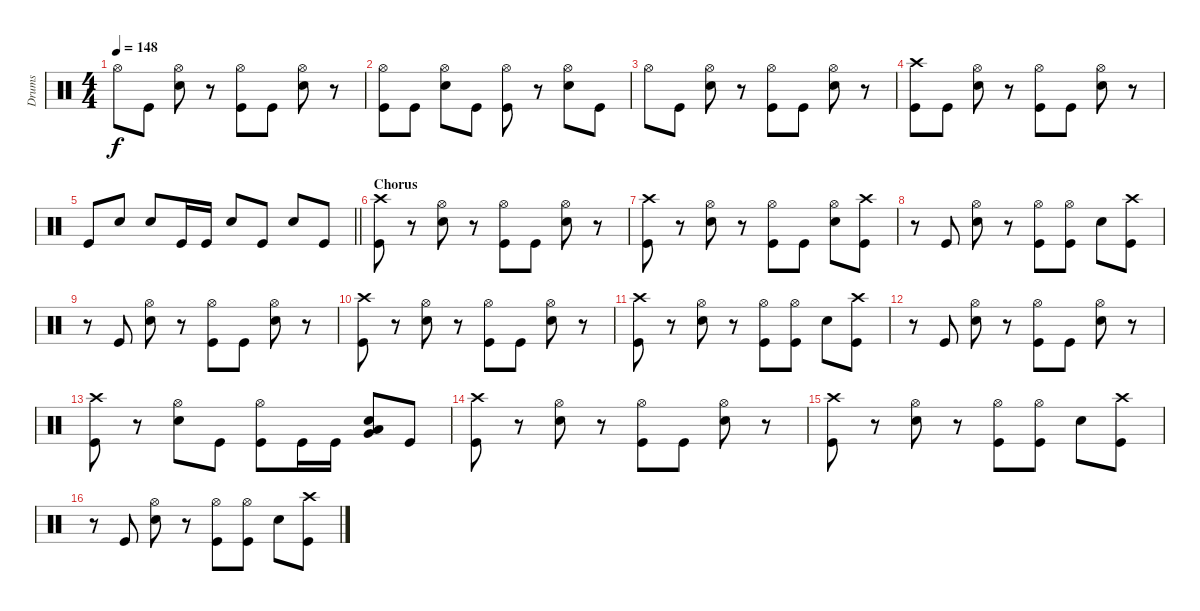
\track ("Drums" "Drums") {instrument percussion}
\staff {score}
\articulation defaults
\ts (4 4)
\tempo 148
\clef neutral
\ks c "Hi-Hat (open)".8{dy f} "Kick (hit)".8
("Hi-Hat (open)" "Snare (hit) 2").8 r.8 ("Hi-Hat (open)" "Kick (hit)").8 "Kick (hit)".8 ("Hi-Hat (open)" "Snare (hit) 2").8 r.8 |
("Hi-Hat (open)" "Kick (hit)").8 "Kick (hit)".8 ("Hi-Hat (open)" "Snare (hit) 2").8 "Kick (hit)".8 ("Hi-Hat (open)" "Kick (hit)").8 r.8 ("Hi-Hat (open)" "Snare (hit) 2").8 "Kick (hit)".8 |
"Hi-Hat (open)".8 "Kick (hit)".8 ("Hi-Hat (open)" "Snare (hit) 2").8 r.8 ("Hi-Hat (open)" "Kick (hit)").8 "Kick (hit)".8 ("Hi-Hat (open)" "Snare (hit) 2").8 r.8 |
("Crash high (hit)" "Kick (hit)").8 "Kick (hit)".8 ("Hi-Hat (open)" "Snare (hit) 2").8 r.8 ("Hi-Hat (open)" "Kick (hit)").8 "Kick (hit)".8 ("Hi-Hat (open)" "Snare (hit) 2").8 r.8 |
\barLineRight lightlight "Kick (hit)".8 "Snare (hit) 2".8 "Snare (hit) 2".8 "Kick (hit)".16 "Kick (hit)".16 "Snare (hit) 2".8 "Kick (hit)".8 "Snare (hit) 2".8 "Kick (hit)".8
|
\section ("" "Chorus")
("Kick (hit)" "Crash high (hit)").8 r.8 ("Hi-Hat (open)" "Snare (hit) 2").8 r.8 ("Hi-Hat (open)" "Kick (hit)").8 "Kick (hit)".8 ("Hi-Hat (open)" "Snare (hit) 2").8 r.8 |
("Kick (hit)" "Crash high (hit)").8 r.8 ("Snare (hit) 2" "Hi-Hat (open)").8 r.8 ("Hi-Hat (open)" "Kick (hit)").8 "Kick (hit)".8 ("Hi-Hat (open)" "Snare (hit) 2").8 ("Kick (hit)" "Crash high (hit)").8 |
r.8 "Kick (hit)".8 ("Hi-Hat (open)" "Snare (hit) 2").8 r.8 ("Hi-Hat (open)" "Kick (hit)").8 ("Kick (hit)" "Hi-Hat (open)").8 "Snare (hit) 2".8 ("Kick (hit)" "Crash high (hit)").8 |
r.8 "Kick (hit)".8 ("Snare (hit) 2" "Hi-Hat (open)").8 r.8 ("Kick (hit)" "Hi-Hat (open)").8 "Kick (hit)".8 ("Snare (hit) 2" "Hi-Hat (open)").8 r.8 |
("Kick (hit)" "Crash high (hit)").8 r.8 ("Snare (hit) 2" "Hi-Hat (open)").8 r.8 ("Kick (hit)" "Hi-Hat (open)").8 "Kick (hit)".8 ("Snare (hit) 2" "Hi-Hat (open)").8 r.8 |
("Kick (hit)" "Crash high (hit)").8 r.8 ("Snare (hit) 2" "Hi-Hat (open)").8 r.8 ("Hi-Hat (open)" "Kick (hit)").8 ("Kick (hit)" "Hi-Hat (open)").8 "Snare (hit) 2".8 ("Kick (hit)" "Crash high (hit)").8 |
r.8 "Kick (hit)".8 ("Hi-Hat (open)" "Snare (hit) 2").8 r.8 ("Hi-Hat (open)" "Kick (hit)").8 "Kick (hit)".8 ("Hi-Hat (open)" "Snare (hit) 2").8 r.8 |
("Kick (hit)" "Crash high (hit)").8 r.8 ("Snare (hit) 2" "Hi-Hat (open)").8 "Kick (hit)".8 ("Kick (hit)" "Hi-Hat (open)").8 "Kick (hit)".16 "Kick (hit)".16 ("Snare (hit) 2" "Low Floor Tom (hit)" "Very Low Tom (hit)").8 "Kick (hit)".8 |
("Kick (hit)" "Crash high (hit)").8 r.8 ("Hi-Hat (open)" "Snare (hit) 2").8 r.8 ("Hi-Hat (open)" "Kick (hit)").8 "Kick (hit)".8 ("Hi-Hat (open)" "Snare (hit) 2").8 r.8 |
("Kick (hit)" "Crash high (hit)").8 r.8 ("Snare (hit) 2" "Hi-Hat (open)").8 r.8 ("Hi-Hat (open)" "Kick (hit)").8 ("Kick (hit)" "Hi-Hat (open)").8 "Snare (hit) 2".8 ("Kick (hit)" "Crash high (hit)").8 |
r.8 "Kick (hit)".8 ("Hi-Hat (open)" "Snare (hit) 2").8 r.8 ("Hi-Hat (open)" "Kick (hit)").8 ("Kick (hit)" "Hi-Hat (open)").8 "Snare (hit) 2".8 ("Kick (hit)" "Crash high (hit)").8
